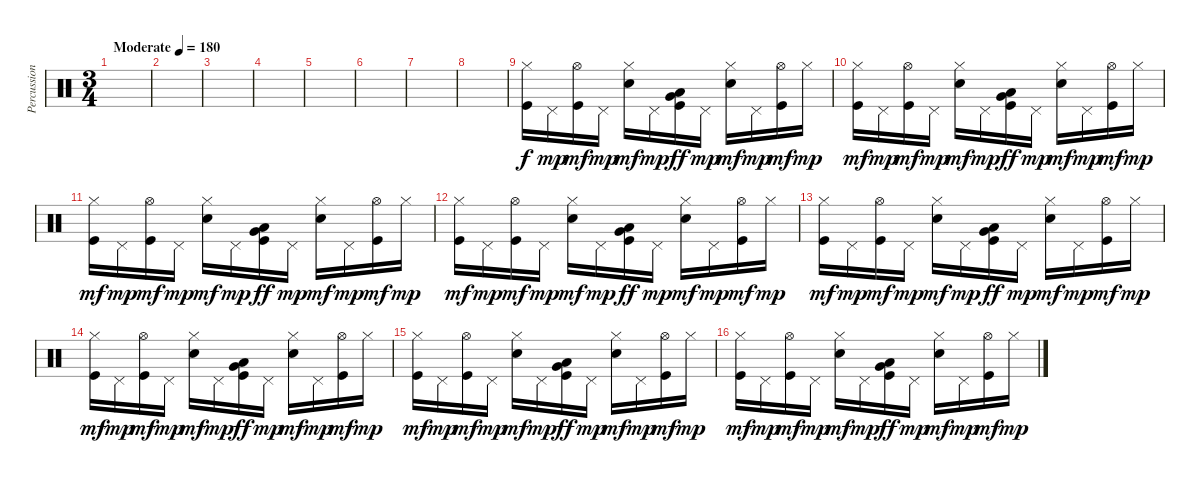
\track ("Percussion" "Percussion") {instrument percussion}
\staff {score}
\articulation defaults
\ts (3 4)
\tempo (180 "Moderate")
\clef neutral
\ks c
|
|
|
|
|
|
|
|
("Hi-Hat (closed)" "Kick (hit)").16 "Pedal Hi-Hat (hit)".16{dy mp} ("Hi-Hat (open)" "Kick (hit)").16{dy mf} "Pedal Hi-Hat (hit)".16{dy mp} ("Hi-Hat (closed)" "Snare (hit) 2").16{dy mf} "Pedal Hi-Hat (hit)".16{dy mp} ("Low Tom (hit)" "Very Low Tom (hit)" "Kick (hit)").16{dy ff} "Pedal Hi-Hat (hit)".16{dy mp} ("Hi-Hat (closed)" "Snare (hit) 2").16{dy mf} "Pedal Hi-Hat (hit)".16{dy mp} ("Hi-Hat (open)" "Kick (hit)").16{dy mf} "Hi-Hat (closed)".16{dy mp} |
("Hi-Hat (closed)" "Kick (hit)").16{dy mf} "Pedal Hi-Hat (hit)".16{dy mp} ("Hi-Hat (open)" "Kick (hit)").16{dy mf} "Pedal Hi-Hat (hit)".16{dy mp} ("Hi-Hat (closed)" "Snare (hit) 2").16{dy mf} "Pedal Hi-Hat (hit)".16{dy mp} ("Low Tom (hit)" "Very Low Tom (hit)" "Kick (hit)").16{dy ff} "Pedal Hi-Hat (hit)".16{dy mp} ("Hi-Hat (closed)" "Snare (hit) 2").16{dy mf} "Pedal Hi-Hat (hit)".16{dy mp} ("Hi-Hat (open)" "Kick (hit)").16{dy mf} "Hi-Hat (closed)".16{dy mp} |
("Hi-Hat (closed)" "Kick (hit)").16{dy mf} "Pedal Hi-Hat (hit)".16{dy mp} ("Hi-Hat (open)" "Kick (hit)").16{dy mf} "Pedal Hi-Hat (hit)".16{dy mp} ("Hi-Hat (closed)" "Snare (hit) 2").16{dy mf} "Pedal Hi-Hat (hit)".16{dy mp} ("Low Tom (hit)" "Very Low Tom (hit)" "Kick (hit)").16{dy ff} "Pedal Hi-Hat (hit)".16{dy mp} ("Hi-Hat (closed)" "Snare (hit) 2").16{dy mf} "Pedal Hi-Hat (hit)".16{dy mp} ("Hi-Hat (open)" "Kick (hit)").16{dy mf} "Hi-Hat (closed)".16{dy mp} |
("Hi-Hat (closed)" "Kick (hit)").16{dy mf} "Pedal Hi-Hat (hit)".16{dy mp} ("Hi-Hat (open)" "Kick (hit)").16{dy mf} "Pedal Hi-Hat (hit)".16{dy mp} ("Hi-Hat (closed)" "Snare (hit) 2").16{dy mf} "Pedal Hi-Hat (hit)".16{dy mp} ("Low Tom (hit)" "Very Low Tom (hit)" "Kick (hit)").16{dy ff} "Pedal Hi-Hat (hit)".16{dy mp} ("Hi-Hat (closed)" "Snare (hit) 2").16{dy mf} "Pedal Hi-Hat (hit)".16{dy mp} ("Hi-Hat (open)" "Kick (hit)").16{dy mf} "Hi-Hat (closed)".16{dy mp} |
("Hi-Hat (closed)" "Kick (hit)").16{dy mf} "Pedal Hi-Hat (hit)".16{dy mp} ("Hi-Hat (open)" "Kick (hit)").16{dy mf} "Pedal Hi-Hat (hit)".16{dy mp} ("Hi-Hat (closed)" "Snare (hit) 2").16{dy mf} "Pedal Hi-Hat (hit)".16{dy mp} ("Low Tom (hit)" "Very Low Tom (hit)" "Kick (hit)").16{dy ff} "Pedal Hi-Hat (hit)".16{dy mp} ("Hi-Hat (closed)" "Snare (hit) 2").16{dy mf} "Pedal Hi-Hat (hit)".16{dy mp} ("Hi-Hat (open)" "Kick (hit)").16{dy mf} "Hi-Hat (closed)".16{dy mp} |
("Hi-Hat (closed)" "Kick (hit)").16{dy mf} "Pedal Hi-Hat (hit)".16{dy mp} ("Hi-Hat (open)" "Kick (hit)").16{dy mf} "Pedal Hi-Hat (hit)".16{dy mp} ("Hi-Hat (closed)" "Snare (hit) 2").16{dy mf} "Pedal Hi-Hat (hit)".16{dy mp} ("Low Tom (hit)" "Very Low Tom (hit)" "Kick (hit)").16{dy ff} "Pedal Hi-Hat (hit)".16{dy mp} ("Hi-Hat (closed)" "Snare (hit) 2").16{dy mf} "Pedal Hi-Hat (hit)".16{dy mp} ("Hi-Hat (open)" "Kick (hit)").16{dy mf} "Hi-Hat (closed)".16{dy mp} |
("Hi-Hat (closed)" "Kick (hit)").16{dy mf} "Pedal Hi-Hat (hit)".16{dy mp} ("Hi-Hat (open)" "Kick (hit)").16{dy mf} "Pedal Hi-Hat (hit)".16{dy mp} ("Hi-Hat (closed)" "Snare (hit) 2").16{dy mf} "Pedal Hi-Hat (hit)".16{dy mp} ("Low Tom (hit)" "Very Low Tom (hit)" "Kick (hit)").16{dy ff} "Pedal Hi-Hat (hit)".16{dy mp} ("Hi-Hat (closed)" "Snare (hit) 2").16{dy mf} "Pedal Hi-Hat (hit)".16{dy mp} ("Hi-Hat (open)" "Kick (hit)").16{dy mf} "Hi-Hat (closed)".16{dy mp} |
("Hi-Hat (closed)" "Kick (hit)").16{dy mf} "Pedal Hi-Hat (hit)".16{dy mp} ("Hi-Hat (open)" "Kick (hit)").16{dy mf} "Pedal Hi-Hat (hit)".16{dy mp} ("Hi-Hat (closed)" "Snare (hit) 2").16{dy mf} "Pedal Hi-Hat (hit)".16{dy mp} ("Low Tom (hit)" "Very Low Tom (hit)" "Kick (hit)").16{dy ff} "Pedal Hi-Hat (hit)".16{dy mp} ("Hi-Hat (closed)" "Snare (hit) 2").16{dy mf} "Pedal Hi-Hat (hit)".16{dy mp} ("Hi-Hat (open)" "Kick (hit)").16{dy mf} "Hi-Hat (closed)".16{dy mp}
